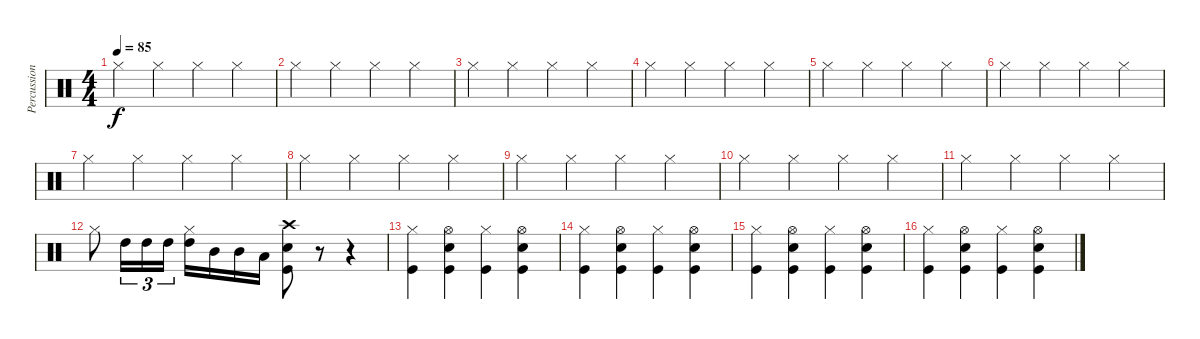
\track ("Percussions" "Percussion") {instrument percussion}
\staff {score}
\articulation defaults
\ts (4 4)
\tempo 85
\clef neutral
\ks c "Hi-Hat (closed)".4{dy f} "Hi-Hat (closed)".4 "Hi-Hat (closed)".4 "Hi-Hat (closed)".4
|
"Hi-Hat (closed)".4 "Hi-Hat (closed)".4 "Hi-Hat (closed)".4 "Hi-Hat (closed)".4 |
"Hi-Hat (closed)".4 "Hi-Hat (closed)".4 "Hi-Hat (closed)".4 "Hi-Hat (closed)".4 |
"Hi-Hat (closed)".4 "Hi-Hat (closed)".4 "Hi-Hat (closed)".4 "Hi-Hat (closed)".4 |
"Hi-Hat (closed)".4 "Hi-Hat (closed)".4 "Hi-Hat (closed)".4 "Hi-Hat (closed)".4 |
"Hi-Hat (closed)".4 "Hi-Hat (closed)".4 "Hi-Hat (closed)".4 "Hi-Hat (closed)".4 |
"Hi-Hat (closed)".4 "Hi-Hat (closed)".4 "Hi-Hat (closed)".4 "Hi-Hat (closed)".4 |
"Hi-Hat (closed)".4 "Hi-Hat (closed)".4 "Hi-Hat (closed)".4 "Hi-Hat (closed)".4 |
"Hi-Hat (closed)".4 "Hi-Hat (closed)".4 "Hi-Hat (closed)".4 "Hi-Hat (closed)".4 |
"Hi-Hat (closed)".4 "Hi-Hat (closed)".4 "Hi-Hat (closed)".4 "Hi-Hat (closed)".4 |
"Hi-Hat (closed)".4 "Hi-Hat (closed)".4 "Hi-Hat (closed)".4 "Hi-Hat (closed)".4 |
"Hi-Hat (closed)".8 "High Tom (hit)".16{tu (3 2)} "High Tom (hit)".16{tu (3 2)} "High Tom (hit)".16{tu (3 2)} ("Hi-Hat (closed)" "High Tom (hit)").16 "Mid Tom (hit)".16 "Mid Tom (hit)".16 "Low Tom (hit)".16 ("Snare (hit) 2" "Kick (hit)" "Crash high (hit)").8 r.8 r.4 |
("Kick (hit)" "Hi-Hat (closed)").4 ("Kick (hit)" "Snare (hit) 2" "Hi-Hat (open)").4 ("Kick (hit)" "Hi-Hat (closed)").4 ("Kick (hit)" "Snare (hit) 2" "Hi-Hat (open)").4 |
("Kick (hit)" "Hi-Hat (closed)").4 ("Kick (hit)" "Snare (hit) 2" "Hi-Hat (open)").4 ("Kick (hit)" "Hi-Hat (closed)").4 ("Kick (hit)" "Snare (hit) 2" "Hi-Hat (open)").4 |
("Kick (hit)" "Hi-Hat (closed)").4 ("Kick (hit)" "Snare (hit) 2" "Hi-Hat (open)").4 ("Kick (hit)" "Hi-Hat (closed)").4 ("Kick (hit)" "Snare (hit) 2" "Hi-Hat (open)").4 |
("Kick (hit)" "Hi-Hat (closed)").4 ("Kick (hit)" "Snare (hit) 2" "Hi-Hat (open)").4 ("Kick (hit)" "Hi-Hat (closed)").4 ("Kick (hit)" "Snare (hit) 2" "Hi-Hat (open)").4
